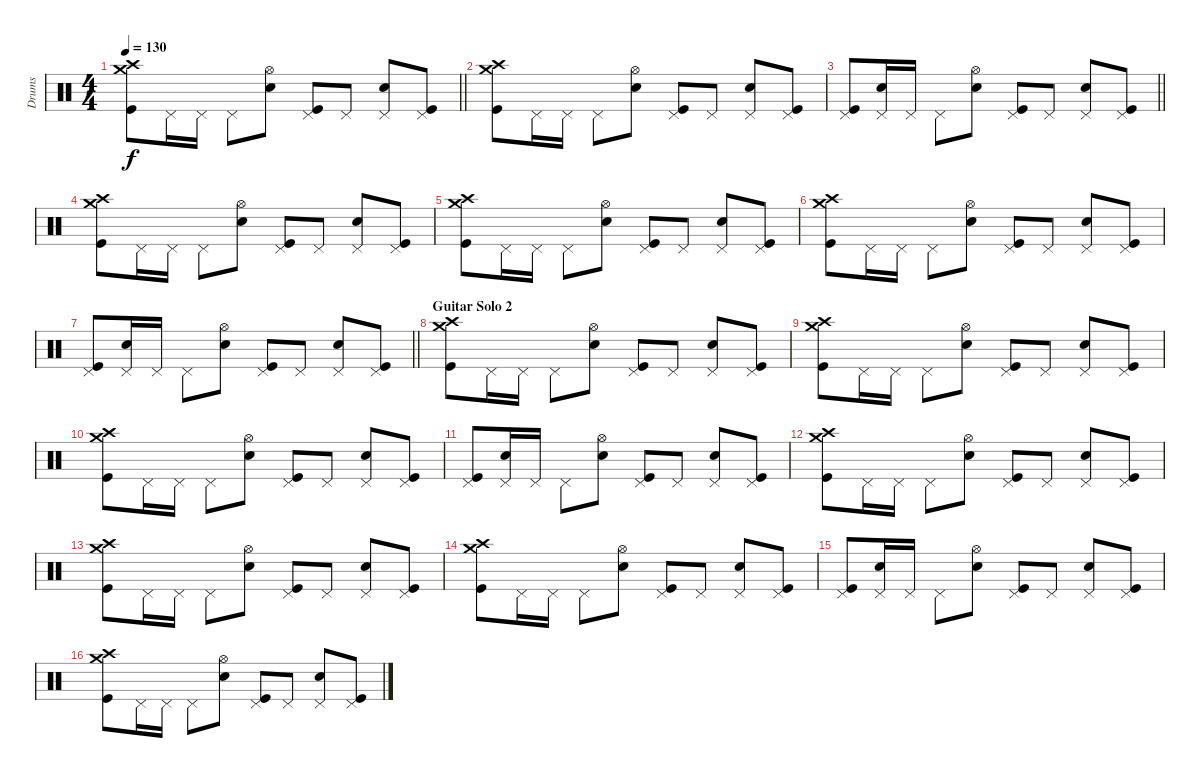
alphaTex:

\track ("Drums" "Drums") {instrument percussion}
\staff {score}
\articulation defaults
\ts (4 4)
\tempo 130
\clef neutral
\barLineRight lightlight
\ks c
("Kick (hit)" "Crash high (hit)" "Crash medium (hit)").8{dy f} "Pedal Hi-Hat (hit)".16 "Pedal Hi-Hat (hit)".16 "Pedal Hi-Hat (hit)".8 ("Hi-Hat (open)" "Snare (hit) 2").8 ("Pedal Hi-Hat (hit)" "Kick (hit)").8 "Pedal Hi-Hat (hit)".8 ("Pedal Hi-Hat (hit)" "Snare (hit) 2").8 ("Pedal Hi-Hat (hit)" "Kick (hit)").8 |
("Kick (hit)" "Crash high (hit)" "Crash medium (hit)").8 "Pedal Hi-Hat (hit)".16 "Pedal Hi-Hat (hit)".16 "Pedal Hi-Hat (hit)".8 ("Hi-Hat (open)" "Snare (hit) 2").8 ("Pedal Hi-Hat (hit)" "Kick (hit)").8 "Pedal Hi-Hat (hit)".8 ("Pedal Hi-Hat (hit)" "Snare (hit) 2").8 ("Pedal Hi-Hat (hit)" "Kick (hit)").8 |
\barLineRight lightlight
("Pedal Hi-Hat (hit)" "Kick (hit)").8 ("Pedal Hi-Hat (hit)" "Snare (hit) 2").16 "Pedal Hi-Hat (hit)".16 "Pedal Hi-Hat (hit)".8 ("Hi-Hat (open)" "Snare (hit) 2").8 ("Pedal Hi-Hat (hit)" "Kick (hit)").8 "Pedal Hi-Hat (hit)".8 ("Pedal Hi-Hat (hit)" "Snare (hit) 2").8 ("Pedal Hi-Hat (hit)" "Kick (hit)").8 |
("Kick (hit)" "Crash high (hit)" "Crash medium (hit)").8 "Pedal Hi-Hat (hit)".16 "Pedal Hi-Hat (hit)".16 "Pedal Hi-Hat (hit)".8 ("Hi-Hat (open)" "Snare (hit) 2").8 ("Pedal Hi-Hat (hit)" "Kick (hit)").8 "Pedal Hi-Hat (hit)".8 ("Pedal Hi-Hat (hit)" "Snare (hit) 2").8 ("Pedal Hi-Hat (hit)" "Kick (hit)").8 |
("Kick (hit)" "Crash high (hit)" "Crash medium (hit)").8 "Pedal Hi-Hat (hit)".16 "Pedal Hi-Hat (hit)".16 "Pedal Hi-Hat (hit)".8 ("Hi-Hat (open)" "Snare (hit) 2").8 ("Pedal Hi-Hat (hit)" "Kick (hit)").8 "Pedal Hi-Hat (hit)".8 ("Pedal Hi-Hat (hit)" "Snare (hit) 2").8 ("Pedal Hi-Hat (hit)" "Kick (hit)").8 |
("Kick (hit)" "Crash high (hit)" "Crash medium (hit)").8 "Pedal Hi-Hat (hit)".16 "Pedal Hi-Hat (hit)".16 "Pedal Hi-Hat (hit)".8 ("Hi-Hat (open)" "Snare (hit) 2").8 ("Pedal Hi-Hat (hit)" "Kick (hit)").8 "Pedal Hi-Hat (hit)".8 ("Pedal Hi-Hat (hit)" "Snare (hit) 2").8 ("Pedal Hi-Hat (hit)" "Kick (hit)").8 |
\barLineRight lightlight
("Pedal Hi-Hat (hit)" "Kick (hit)").8 ("Pedal Hi-Hat (hit)" "Snare (hit) 2").16 "Pedal Hi-Hat (hit)".16 "Pedal Hi-Hat (hit)".8 ("Hi-Hat (open)" "Snare (hit) 2").8 ("Pedal Hi-Hat (hit)" "Kick (hit)").8 "Pedal Hi-Hat (hit)".8 ("Pedal Hi-Hat (hit)" "Snare (hit) 2").8 ("Pedal Hi-Hat (hit)" "Kick (hit)").8 |
\section ("" "Guitar Solo 2")
("Kick (hit)" "Crash high (hit)" "Crash medium (hit)").8 "Pedal Hi-Hat (hit)".16 "Pedal Hi-Hat (hit)".16 "Pedal Hi-Hat (hit)".8 ("Hi-Hat (open)" "Snare (hit) 2").8 ("Pedal Hi-Hat (hit)" "Kick (hit)").8 "Pedal Hi-Hat (hit)".8 ("Pedal Hi-Hat (hit)" "Snare (hit) 2").8 ("Pedal Hi-Hat (hit)" "Kick (hit)").8 |
("Kick (hit)" "Crash high (hit)" "Crash medium (hit)").8 "Pedal Hi-Hat (hit)".16 "Pedal Hi-Hat (hit)".16 "Pedal Hi-Hat (hit)".8 ("Hi-Hat (open)" "Snare (hit) 2").8 ("Pedal Hi-Hat (hit)" "Kick (hit)").8 "Pedal Hi-Hat (hit)".8 ("Pedal Hi-Hat (hit)" "Snare (hit) 2").8 ("Pedal Hi-Hat (hit)" "Kick (hit)").8 |
("Kick (hit)" "Crash high (hit)" "Crash medium (hit)").8 "Pedal Hi-Hat (hit)".16 "Pedal Hi-Hat (hit)".16 "Pedal Hi-Hat (hit)".8 ("Hi-Hat (open)" "Snare (hit) 2").8 ("Pedal Hi-Hat (hit)" "Kick (hit)").8 "Pedal Hi-Hat (hit)".8 ("Pedal Hi-Hat (hit)" "Snare (hit) 2").8 ("Pedal Hi-Hat (hit)" "Kick (hit)").8 |
("Pedal Hi-Hat (hit)" "Kick (hit)").8 ("Pedal Hi-Hat (hit)" "Snare (hit) 2").16 "Pedal Hi-Hat (hit)".16 "Pedal Hi-Hat (hit)".8 ("Hi-Hat (open)" "Snare (hit) 2").8 ("Pedal Hi-Hat (hit)" "Kick (hit)").8 "Pedal Hi-Hat (hit)".8 ("Pedal Hi-Hat (hit)" "Snare (hit) 2").8 ("Pedal Hi-Hat (hit)" "Kick (hit)").8 |
("Kick (hit)" "Crash high (hit)" "Crash medium (hit)").8 "Pedal Hi-Hat (hit)".16 "Pedal Hi-Hat (hit)".16 "Pedal Hi-Hat (hit)".8 ("Hi-Hat (open)" "Snare (hit) 2").8 ("Pedal Hi-Hat (hit)" "Kick (hit)").8 "Pedal Hi-Hat (hit)".8 ("Pedal Hi-Hat (hit)" "Snare (hit) 2").8 ("Pedal Hi-Hat (hit)" "Kick (hit)").8 |
("Kick (hit)" "Crash high (hit)" "Crash medium (hit)").8 "Pedal Hi-Hat (hit)".16 "Pedal Hi-Hat (hit)".16 "Pedal Hi-Hat (hit)".8 ("Hi-Hat (open)" "Snare (hit) 2").8 ("Pedal Hi-Hat (hit)" "Kick (hit)").8 "Pedal Hi-Hat (hit)".8 ("Pedal Hi-Hat (hit)" "Snare (hit) 2").8 ("Pedal Hi-Hat (hit)" "Kick (hit)").8 |
("Kick (hit)" "Crash high (hit)" "Crash medium (hit)").8 "Pedal Hi-Hat (hit)".16 "Pedal Hi-Hat (hit)".16 "Pedal Hi-Hat (hit)".8 ("Hi-Hat (open)" "Snare (hit) 2").8 ("Pedal Hi-Hat (hit)" "Kick (hit)").8 "Pedal Hi-Hat (hit)".8 ("Pedal Hi-Hat (hit)" "Snare (hit) 2").8 ("Pedal Hi-Hat (hit)" "Kick (hit)").8 |
("Pedal Hi-Hat (hit)" "Kick (hit)").8 ("Pedal Hi-Hat (hit)" "Snare (hit) 2").16 "Pedal Hi-Hat (hit)".16 "Pedal Hi-Hat (hit)".8 ("Hi-Hat (open)" "Snare (hit) 2").8 ("Pedal Hi-Hat (hit)" "Kick (hit)").8 "Pedal Hi-Hat (hit)".8 ("Pedal Hi-Hat (hit)" "Snare (hit) 2").8 ("Pedal Hi-Hat (hit)" "Kick (hit)").8 |
("Kick (hit)" "Crash high (hit)" "Crash medium (hit)").8 "Pedal Hi-Hat (hit)".16 "Pedal Hi-Hat (hit)".16 "Pedal Hi-Hat (hit)".8 ("Hi-Hat (open)" "Snare (hit) 2").8 ("Pedal Hi-Hat (hit)" "Kick (hit)").8 "Pedal Hi-Hat (hit)".8 ("Pedal Hi-Hat (hit)" "Snare (hit) 2").8 ("Pedal Hi-Hat (hit)" "Kick (hit)").8
